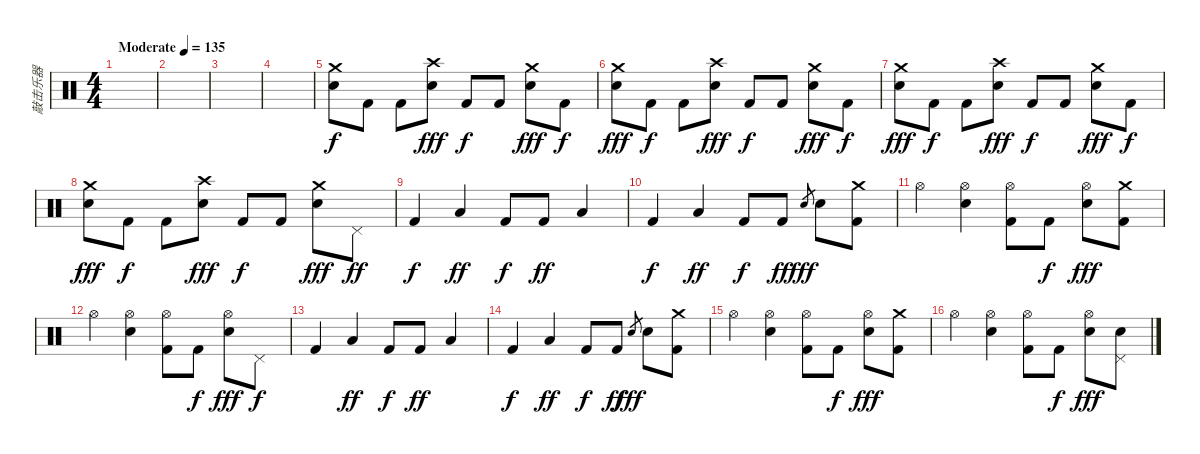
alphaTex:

\track ("敲击乐器" "敲击乐器") {instrument percussion}
\staff {score}
\articulation defaults
\ts (4 4)
\tempo (135 "Moderate")
\clef neutral
\ks c
|
|
|
|
("Crash medium (hit)" "Electric Snare (hit)").8 "Kick (hit) 2".8{dy f} "Kick (hit) 2".8 ("Electric Snare (hit)" "Crash high (hit)").8{dy fff} "Kick (hit) 2".8{dy f} "Kick (hit) 2".8 ("Electric Snare (hit)" "Crash medium (hit)").8{dy fff} "Kick (hit) 2".8{dy f} |
("Crash medium (hit)" "Electric Snare (hit)").8{dy fff} "Kick (hit) 2".8{dy f} "Kick (hit) 2".8 ("Electric Snare (hit)" "Crash high (hit)").8{dy fff} "Kick (hit) 2".8{dy f} "Kick (hit) 2".8 ("Electric Snare (hit)" "Crash medium (hit)").8{dy fff} "Kick (hit) 2".8{dy f} |
("Crash medium (hit)" "Electric Snare (hit)").8{dy fff} "Kick (hit) 2".8{dy f} "Kick (hit) 2".8 ("Electric Snare (hit)" "Crash high (hit)").8{dy fff} "Kick (hit) 2".8{dy f} "Kick (hit) 2".8 ("Electric Snare (hit)" "Crash medium (hit)").8{dy fff} "Kick (hit) 2".8{dy f} |
("Crash medium (hit)" "Electric Snare (hit)").8{dy fff} "Kick (hit) 2".8{dy f} "Kick (hit) 2".8 ("Electric Snare (hit)" "Crash high (hit)").8{dy fff} "Kick (hit) 2".8{dy f} "Kick (hit) 2".8 ("Electric Snare (hit)" "Crash medium (hit)").8{dy fff} "Pedal Hi-Hat (hit)".8{dy ff} |
"Kick (hit) 2".4{dy f} "Low Tom (hit)".4{dy ff} "Kick (hit) 2".8{dy f} "Kick (hit) 2".8{dy ff} "Low Tom (hit)".4 |
"Kick (hit) 2".4{dy f} "Low Tom (hit)".4{dy ff} "Kick (hit) 2".8{dy f} "Kick (hit) 2".8{dy ff} "Snare (hit) 2".8{gr dy fff} "Electric Snare (hit)".8 ("Crash medium (hit)" "Kick (hit) 2").8 |
"Hi-Hat (open)".4 ("Hi-Hat (open)" "Electric Snare (hit)").4 ("Hi-Hat (open)" "Kick (hit) 2").8 "Kick (hit) 2".8{dy f} ("Hi-Hat (open)" "Electric Snare (hit)").8{dy fff} ("Kick (hit) 2" "Crash medium (hit)").8 |
"Hi-Hat (open)".4 ("Hi-Hat (open)" "Electric Snare (hit)").4 ("Hi-Hat (open)" "Kick (hit) 2").8 "Kick (hit) 2".8{dy f} ("Hi-Hat (open)" "Electric Snare (hit)").8{dy fff} "Pedal Hi-Hat (hit)".8{dy f} |
"Kick (hit) 2".4 "Low Tom (hit)".4{dy ff} "Kick (hit) 2".8{dy f} "Kick (hit) 2".8{dy ff} "Low Tom (hit)".4 |
"Kick (hit) 2".4{dy f} "Low Tom (hit)".4{dy ff} "Kick (hit) 2".8{dy f} "Kick (hit) 2".8{dy ff} "Snare (hit) 2".8{gr dy fff} "Electric Snare (hit)".8 ("Crash medium (hit)" "Kick (hit) 2").8 |
"Hi-Hat (open)".4 ("Hi-Hat (open)" "Electric Snare (hit)").4 ("Hi-Hat (open)" "Kick (hit) 2").8 "Kick (hit) 2".8{dy f} ("Hi-Hat (open)" "Electric Snare (hit)").8{dy fff} ("Kick (hit) 2" "Crash medium (hit)").8 |
"Hi-Hat (open)".4 ("Hi-Hat (open)" "Electric Snare (hit)").4 ("Hi-Hat (open)" "Kick (hit) 2").8 "Kick (hit) 2".8{dy f} ("Hi-Hat (open)" "Electric Snare (hit)").8{dy fff} ("Pedal Hi-Hat (hit)" "Electric Snare (hit)").8
